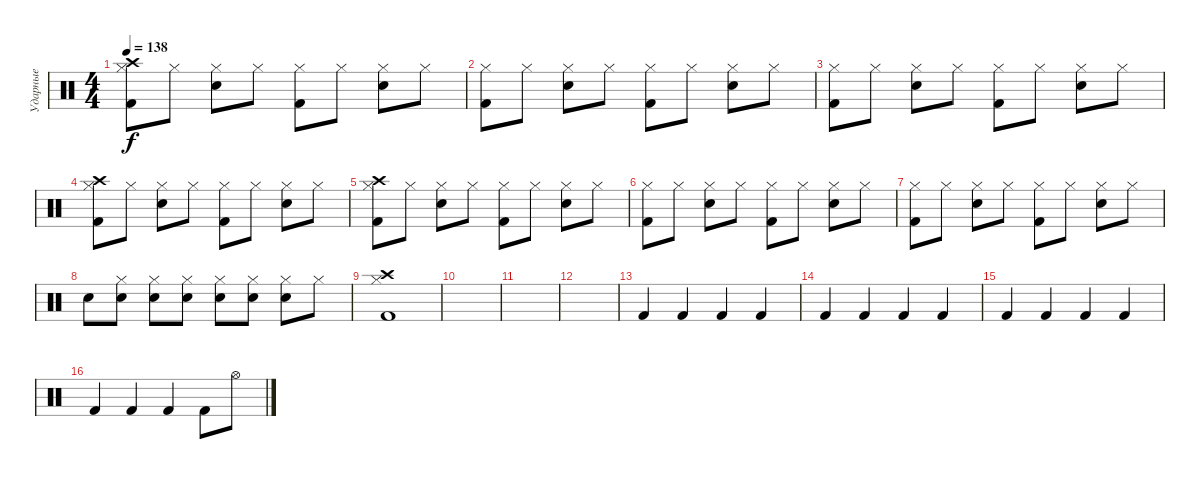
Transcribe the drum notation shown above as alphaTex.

\track ("Ударные" "Ударные") {instrument percussion}
\staff {score}
\articulation defaults
\ts (4 4)
\tempo 138
\clef neutral
\ks c
("Hi-Hat (closed)" "Kick (hit) 2" "Crash high (hit)").8{dy f} "Hi-Hat (closed)".8 ("Hi-Hat (closed)" "Snare (hit) 2").8 "Hi-Hat (closed)".8 ("Hi-Hat (closed)" "Kick (hit) 2").8 "Hi-Hat (closed)".8 ("Hi-Hat (closed)" "Snare (hit) 2").8 "Hi-Hat (closed)".8 |
("Hi-Hat (closed)" "Kick (hit) 2").8 "Hi-Hat (closed)".8 ("Hi-Hat (closed)" "Snare (hit) 2").8 "Hi-Hat (closed)".8 ("Hi-Hat (closed)" "Kick (hit) 2").8 "Hi-Hat (closed)".8 ("Hi-Hat (closed)" "Snare (hit) 2").8 "Hi-Hat (closed)".8 |
("Hi-Hat (closed)" "Kick (hit) 2").8 "Hi-Hat (closed)".8 ("Hi-Hat (closed)" "Snare (hit) 2").8 "Hi-Hat (closed)".8 ("Hi-Hat (closed)" "Kick (hit) 2").8 "Hi-Hat (closed)".8 ("Hi-Hat (closed)" "Snare (hit) 2").8 "Hi-Hat (closed)".8 |
("Hi-Hat (closed)" "Kick (hit) 2" "Crash high (hit)").8 "Hi-Hat (closed)".8 ("Hi-Hat (closed)" "Snare (hit) 2").8 "Hi-Hat (closed)".8 ("Hi-Hat (closed)" "Kick (hit) 2").8 "Hi-Hat (closed)".8 ("Hi-Hat (closed)" "Snare (hit) 2").8 "Hi-Hat (closed)".8 |
("Hi-Hat (closed)" "Kick (hit) 2" "Crash high (hit)").8 "Hi-Hat (closed)".8 ("Hi-Hat (closed)" "Snare (hit) 2").8 "Hi-Hat (closed)".8 ("Hi-Hat (closed)" "Kick (hit) 2").8 "Hi-Hat (closed)".8 ("Hi-Hat (closed)" "Snare (hit) 2").8 "Hi-Hat (closed)".8 |
("Hi-Hat (closed)" "Kick (hit) 2").8 "Hi-Hat (closed)".8 ("Hi-Hat (closed)" "Snare (hit) 2").8 "Hi-Hat (closed)".8 ("Hi-Hat (closed)" "Kick (hit) 2").8 "Hi-Hat (closed)".8 ("Hi-Hat (closed)" "Snare (hit) 2").8 "Hi-Hat (closed)".8 |
("Hi-Hat (closed)" "Kick (hit) 2").8 "Hi-Hat (closed)".8 ("Hi-Hat (closed)" "Snare (hit) 2").8 "Hi-Hat (closed)".8 ("Hi-Hat (closed)" "Kick (hit) 2").8 "Hi-Hat (closed)".8 ("Hi-Hat (closed)" "Snare (hit) 2").8 "Hi-Hat (closed)".8 |
"Snare (hit) 2".8 ("Snare (hit) 2" "Hi-Hat (closed)").8 ("Snare (hit) 2" "Hi-Hat (closed)").8 ("Snare (hit) 2" "Hi-Hat (closed)").8 ("Snare (hit) 2" "Hi-Hat (closed)").8 ("Snare (hit) 2" "Hi-Hat (closed)").8 ("Snare (hit) 2" "Hi-Hat (closed)").8 "Hi-Hat (closed)".8 |
("Hi-Hat (closed)" "Kick (hit) 2" "Crash high (hit)").1 |
|
|
|
"Kick (hit) 2".4 "Kick (hit) 2".4 "Kick (hit) 2".4 "Kick (hit) 2".4 |
"Kick (hit) 2".4 "Kick (hit) 2".4 "Kick (hit) 2".4 "Kick (hit) 2".4 |
"Kick (hit) 2".4 "Kick (hit) 2".4 "Kick (hit) 2".4 "Kick (hit) 2".4 |
"Kick (hit) 2".4 "Kick (hit) 2".4 "Kick (hit) 2".4 "Kick (hit) 2".8 "Hi-Hat (open)".8
